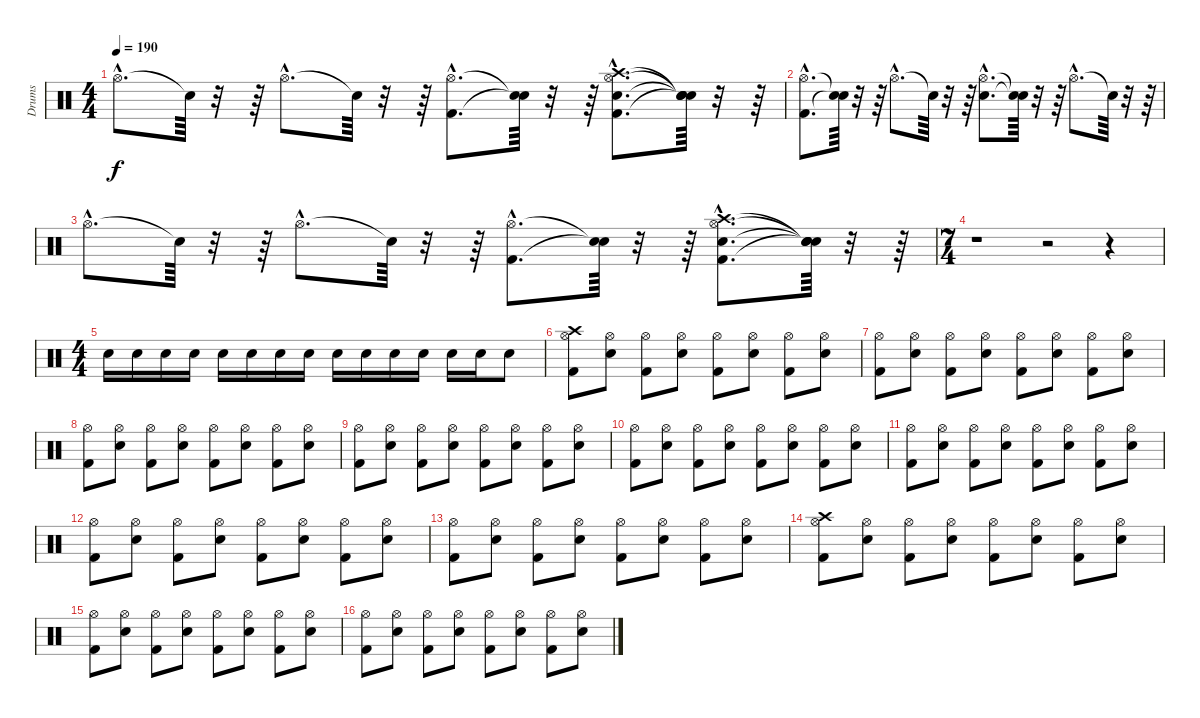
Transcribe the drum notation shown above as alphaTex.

\track ("Drums" "Drums") {instrument percussion}
\staff {score}
\articulation defaults
\ts (4 4)
\tempo 190
\clef neutral
\ks c "Hi-Hat (open)"{hac}.8{d dy f} "Snare (hit)"{t}.64
r.32 r.64 "Hi-Hat (open)"{hac}.8{d} "Snare (hit)"{t}.64 r.32 r.64 ("Kick (hit) 2"{hac} "Hi-Hat (open)"{hac}).8{d} ("Snare (hit)"{t} "Snare (hit)"{t}).64 r.32 r.64 ("Kick (hit) 2"{hac} "Snare (hit) 2"{hac} "Hi-Hat (open)"{hac} "Crash high (hit)"{hac}).8{d} ("Snare (hit)"{t} "Snare (hit)"{t} "Snare (hit)"{t} "Snare (hit)"{t}).64 r.32 r.64 |
("Kick (hit) 2"{hac} "Hi-Hat (open)"{hac}).8{d} ("Snare (hit)"{t} "Snare (hit)"{t}).64 r.32 r.64 "Hi-Hat (open)"{hac}.8{d} "Snare (hit)"{t}.64 r.32 r.64 ("Snare (hit) 2"{hac} "Hi-Hat (open)"{hac}).8{d} ("Snare (hit)"{t} "Snare (hit)"{t}).64 r.32 r.64 "Hi-Hat (open)"{hac}.8{d} "Snare (hit)"{t}.64 r.32 r.64 |
"Hi-Hat (open)"{hac}.8{d} "Snare (hit)"{t}.64 r.32 r.64 "Hi-Hat (open)"{hac}.8{d} "Snare (hit)"{t}.64 r.32 r.64 ("Kick (hit) 2"{hac} "Hi-Hat (open)"{hac}).8{d} ("Snare (hit)"{t} "Snare (hit)"{t}).64 r.32 r.64 ("Kick (hit) 2"{hac} "Snare (hit) 2"{hac} "Hi-Hat (open)"{hac} "Crash high (hit)"{hac}).8{d} ("Snare (hit)"{t} "Snare (hit)"{t} "Snare (hit)"{t} "Snare (hit)"{t}).64 r.32 r.64 |
\ts (7 4)
r.1 r.2 r.4 |
\ts (4 4)
"Snare (hit) 2".16 "Snare (hit) 2".16 "Snare (hit) 2".16 "Snare (hit) 2".16 "Snare (hit) 2".16 "Snare (hit) 2".16 "Snare (hit) 2".16 "Snare (hit) 2".16 "Snare (hit) 2".16 "Snare (hit) 2".16 "Snare (hit) 2".16 "Snare (hit) 2".16 "Snare (hit) 2".16 "Snare (hit) 2".16 "Snare (hit) 2".8 |
("Kick (hit) 2" "Hi-Hat (open)" "Crash high (hit)").8 ("Snare (hit) 2" "Hi-Hat (open)").8 ("Kick (hit) 2" "Hi-Hat (open)").8 ("Snare (hit) 2" "Hi-Hat (open)").8 ("Kick (hit) 2" "Hi-Hat (open)").8 ("Snare (hit) 2" "Hi-Hat (open)").8 ("Kick (hit) 2" "Hi-Hat (open)").8 ("Snare (hit) 2" "Hi-Hat (open)").8 |
("Kick (hit) 2" "Hi-Hat (open)").8 ("Snare (hit) 2" "Hi-Hat (open)").8 ("Kick (hit) 2" "Hi-Hat (open)").8 ("Snare (hit) 2" "Hi-Hat (open)").8 ("Kick (hit) 2" "Hi-Hat (open)").8 ("Snare (hit) 2" "Hi-Hat (open)").8 ("Kick (hit) 2" "Hi-Hat (open)").8 ("Snare (hit) 2" "Hi-Hat (open)").8 |
("Kick (hit) 2" "Hi-Hat (open)").8 ("Snare (hit) 2" "Hi-Hat (open)").8 ("Kick (hit) 2" "Hi-Hat (open)").8 ("Snare (hit) 2" "Hi-Hat (open)").8 ("Kick (hit) 2" "Hi-Hat (open)").8 ("Snare (hit) 2" "Hi-Hat (open)").8 ("Kick (hit) 2" "Hi-Hat (open)").8 ("Snare (hit) 2" "Hi-Hat (open)").8 |
("Kick (hit) 2" "Hi-Hat (open)").8 ("Snare (hit) 2" "Hi-Hat (open)").8 ("Kick (hit) 2" "Hi-Hat (open)").8 ("Snare (hit) 2" "Hi-Hat (open)").8 ("Kick (hit) 2" "Hi-Hat (open)").8 ("Snare (hit) 2" "Hi-Hat (open)").8 ("Kick (hit) 2" "Hi-Hat (open)").8 ("Snare (hit) 2" "Hi-Hat (open)").8 |
("Kick (hit) 2" "Hi-Hat (open)").8 ("Snare (hit) 2" "Hi-Hat (open)").8 ("Kick (hit) 2" "Hi-Hat (open)").8 ("Snare (hit) 2" "Hi-Hat (open)").8 ("Kick (hit) 2" "Hi-Hat (open)").8 ("Snare (hit) 2" "Hi-Hat (open)").8 ("Kick (hit) 2" "Hi-Hat (open)").8 ("Snare (hit) 2" "Hi-Hat (open)").8 |
("Kick (hit) 2" "Hi-Hat (open)").8 ("Snare (hit) 2" "Hi-Hat (open)").8 ("Kick (hit) 2" "Hi-Hat (open)").8 ("Snare (hit) 2" "Hi-Hat (open)").8 ("Kick (hit) 2" "Hi-Hat (open)").8 ("Snare (hit) 2" "Hi-Hat (open)").8 ("Kick (hit) 2" "Hi-Hat (open)").8 ("Snare (hit) 2" "Hi-Hat (open)").8 |
("Kick (hit) 2" "Hi-Hat (open)").8 ("Snare (hit) 2" "Hi-Hat (open)").8 ("Kick (hit) 2" "Hi-Hat (open)").8 ("Snare (hit) 2" "Hi-Hat (open)").8 ("Kick (hit) 2" "Hi-Hat (open)").8 ("Snare (hit) 2" "Hi-Hat (open)").8 ("Kick (hit) 2" "Hi-Hat (open)").8 ("Snare (hit) 2" "Hi-Hat (open)").8 |
("Kick (hit) 2" "Hi-Hat (open)").8 ("Snare (hit) 2" "Hi-Hat (open)").8 ("Kick (hit) 2" "Hi-Hat (open)").8 ("Snare (hit) 2" "Hi-Hat (open)").8 ("Kick (hit) 2" "Hi-Hat (open)").8 ("Snare (hit) 2" "Hi-Hat (open)").8 ("Kick (hit) 2" "Hi-Hat (open)").8 ("Snare (hit) 2" "Hi-Hat (open)").8 |
("Kick (hit) 2" "Hi-Hat (open)" "Crash high (hit)").8 ("Snare (hit) 2" "Hi-Hat (open)").8 ("Kick (hit) 2" "Hi-Hat (open)").8 ("Snare (hit) 2" "Hi-Hat (open)").8 ("Kick (hit) 2" "Hi-Hat (open)").8 ("Snare (hit) 2" "Hi-Hat (open)").8 ("Kick (hit) 2" "Hi-Hat (open)").8 ("Snare (hit) 2" "Hi-Hat (open)").8 |
("Kick (hit) 2" "Hi-Hat (open)").8 ("Snare (hit) 2" "Hi-Hat (open)").8 ("Kick (hit) 2" "Hi-Hat (open)").8 ("Snare (hit) 2" "Hi-Hat (open)").8 ("Kick (hit) 2" "Hi-Hat (open)").8 ("Snare (hit) 2" "Hi-Hat (open)").8 ("Kick (hit) 2" "Hi-Hat (open)").8 ("Snare (hit) 2" "Hi-Hat (open)").8 |
("Kick (hit) 2" "Hi-Hat (open)").8 ("Snare (hit) 2" "Hi-Hat (open)").8 ("Kick (hit) 2" "Hi-Hat (open)").8 ("Snare (hit) 2" "Hi-Hat (open)").8 ("Kick (hit) 2" "Hi-Hat (open)").8 ("Snare (hit) 2" "Hi-Hat (open)").8 ("Kick (hit) 2" "Hi-Hat (open)").8 ("Snare (hit) 2" "Hi-Hat (open)").8
